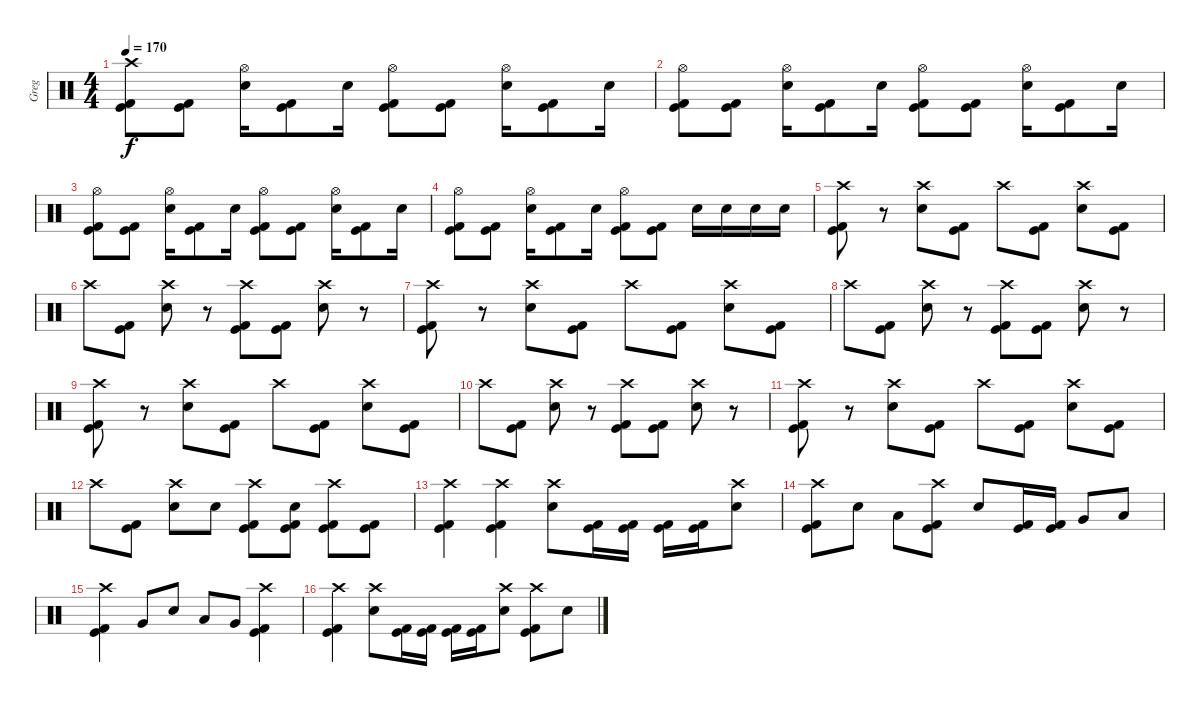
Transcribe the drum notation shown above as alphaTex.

\track ("Greg" "Greg") {instrument percussion}
\staff {score}
\articulation defaults
\ts (4 4)
\tempo 170
\clef neutral
\ks c
("Crash high (hit)" "Kick (hit)" "Kick (hit) 2").8{dy f} ("Kick (hit)" "Kick (hit) 2").8 ("Hi-Hat (open)" "Snare (hit) 2").16 ("Kick (hit)" "Kick (hit) 2").8 "Snare (hit) 2".16 ("Hi-Hat (open)" "Kick (hit)" "Kick (hit) 2").8 ("Kick (hit)" "Kick (hit) 2").8 ("Hi-Hat (open)" "Snare (hit) 2").16 ("Kick (hit)" "Kick (hit) 2").8 "Snare (hit) 2".16 |
("Hi-Hat (open)" "Kick (hit)" "Kick (hit) 2").8 ("Kick (hit)" "Kick (hit) 2").8 ("Hi-Hat (open)" "Snare (hit) 2").16 ("Kick (hit)" "Kick (hit) 2").8 "Snare (hit) 2".16 ("Hi-Hat (open)" "Kick (hit)" "Kick (hit) 2").8 ("Kick (hit)" "Kick (hit) 2").8 ("Hi-Hat (open)" "Snare (hit) 2").16 ("Kick (hit)" "Kick (hit) 2").8 "Snare (hit) 2".16 |
("Hi-Hat (open)" "Kick (hit)" "Kick (hit) 2").8 ("Kick (hit)" "Kick (hit) 2").8 ("Hi-Hat (open)" "Snare (hit) 2").16 ("Kick (hit)" "Kick (hit) 2").8 "Snare (hit) 2".16 ("Hi-Hat (open)" "Kick (hit)" "Kick (hit) 2").8 ("Kick (hit)" "Kick (hit) 2").8 ("Hi-Hat (open)" "Snare (hit) 2").16 ("Kick (hit)" "Kick (hit) 2").8 "Snare (hit) 2".16 |
("Hi-Hat (open)" "Kick (hit)" "Kick (hit) 2").8 ("Kick (hit)" "Kick (hit) 2").8 ("Hi-Hat (open)" "Snare (hit) 2").16 ("Kick (hit)" "Kick (hit) 2").8 "Snare (hit) 2".16 ("Hi-Hat (open)" "Kick (hit)" "Kick (hit) 2").8 ("Kick (hit)" "Kick (hit) 2").8 "Snare (hit) 2".16 "Snare (hit) 2".16 "Snare (hit) 2".16 "Snare (hit) 2".16 |
("Crash high (hit)" "Kick (hit)" "Kick (hit) 2").8 r.8 ("Crash high (hit)" "Snare (hit) 2").8 ("Kick (hit)" "Kick (hit) 2").8 "Crash high (hit)".8 ("Kick (hit)" "Kick (hit) 2").8 ("Crash high (hit)" "Snare (hit) 2").8 ("Kick (hit)" "Kick (hit) 2").8 |
"Crash high (hit)".8 ("Kick (hit)" "Kick (hit) 2").8 ("Crash high (hit)" "Snare (hit) 2").8 r.8 ("Crash high (hit)" "Kick (hit)" "Kick (hit) 2").8 ("Kick (hit)" "Kick (hit) 2").8 ("Crash high (hit)" "Snare (hit) 2").8 r.8 |
("Crash high (hit)" "Kick (hit)" "Kick (hit) 2").8 r.8 ("Crash high (hit)" "Snare (hit) 2").8 ("Kick (hit)" "Kick (hit) 2").8 "Crash high (hit)".8 ("Kick (hit)" "Kick (hit) 2").8 ("Crash high (hit)" "Snare (hit) 2").8 ("Kick (hit)" "Kick (hit) 2").8 |
"Crash high (hit)".8 ("Kick (hit)" "Kick (hit) 2").8 ("Crash high (hit)" "Snare (hit) 2").8 r.8 ("Crash high (hit)" "Kick (hit)" "Kick (hit) 2").8 ("Kick (hit)" "Kick (hit) 2").8 ("Crash high (hit)" "Snare (hit) 2").8 r.8 |
("Crash high (hit)" "Kick (hit)" "Kick (hit) 2").8 r.8 ("Crash high (hit)" "Snare (hit) 2").8 ("Kick (hit)" "Kick (hit) 2").8 "Crash high (hit)".8 ("Kick (hit)" "Kick (hit) 2").8 ("Crash high (hit)" "Snare (hit) 2").8 ("Kick (hit)" "Kick (hit) 2").8 |
"Crash high (hit)".8 ("Kick (hit)" "Kick (hit) 2").8 ("Crash high (hit)" "Snare (hit) 2").8 r.8 ("Crash high (hit)" "Kick (hit)" "Kick (hit) 2").8 ("Kick (hit)" "Kick (hit) 2").8 ("Crash high (hit)" "Snare (hit) 2").8 r.8 |
("Crash high (hit)" "Kick (hit)" "Kick (hit) 2").8 r.8 ("Crash high (hit)" "Snare (hit) 2").8 ("Kick (hit)" "Kick (hit) 2").8 "Crash high (hit)".8 ("Kick (hit)" "Kick (hit) 2").8 ("Crash high (hit)" "Snare (hit) 2").8 ("Kick (hit)" "Kick (hit) 2").8 |
"Crash high (hit)".8 ("Kick (hit)" "Kick (hit) 2").8 ("Crash high (hit)" "Snare (hit) 2").8 "Snare (hit) 2".8 ("Crash high (hit)" "Kick (hit)" "Kick (hit) 2").8 ("Snare (hit) 2" "Kick (hit)" "Kick (hit) 2").8 ("Crash high (hit)" "Kick (hit)" "Kick (hit) 2").8 ("Kick (hit)" "Kick (hit) 2").8 |
("Crash high (hit)" "Kick (hit)" "Kick (hit) 2").4 ("Crash high (hit)" "Kick (hit)" "Kick (hit) 2").4 ("Crash high (hit)" "Snare (hit) 2").8 ("Kick (hit)" "Kick (hit) 2").16 ("Kick (hit)" "Kick (hit) 2").16 ("Kick (hit)" "Kick (hit) 2").16 ("Kick (hit)" "Kick (hit) 2").16 ("Crash high (hit)" "Snare (hit) 2").8 |
("Crash high (hit)" "Kick (hit)" "Kick (hit) 2").8 "Snare (hit) 2".8 "Low Tom (hit)".8 ("Crash high (hit)" "Kick (hit)" "Kick (hit) 2").8 "Snare (hit) 2".8 ("Kick (hit)" "Kick (hit) 2").16 ("Kick (hit)" "Kick (hit) 2").16 "Very Low Tom (hit)".8 "Low Tom (hit)".8 |
("Crash high (hit)" "Kick (hit)" "Kick (hit) 2").4 "Very Low Tom (hit)".8 "Snare (hit) 2".8 "Low Tom (hit)".8 "Very Low Tom (hit)".8 ("Crash high (hit)" "Kick (hit)" "Kick (hit) 2").4 |
("Crash high (hit)" "Kick (hit)" "Kick (hit) 2").4 ("Crash high (hit)" "Snare (hit) 2").8 ("Kick (hit)" "Kick (hit) 2").16 ("Kick (hit)" "Kick (hit) 2").16 ("Kick (hit)" "Kick (hit) 2").16 ("Kick (hit)" "Kick (hit) 2").16 ("Crash high (hit)" "Snare (hit) 2").8 ("Crash high (hit)" "Kick (hit)" "Kick (hit) 2").8 "Snare (hit) 2".8
